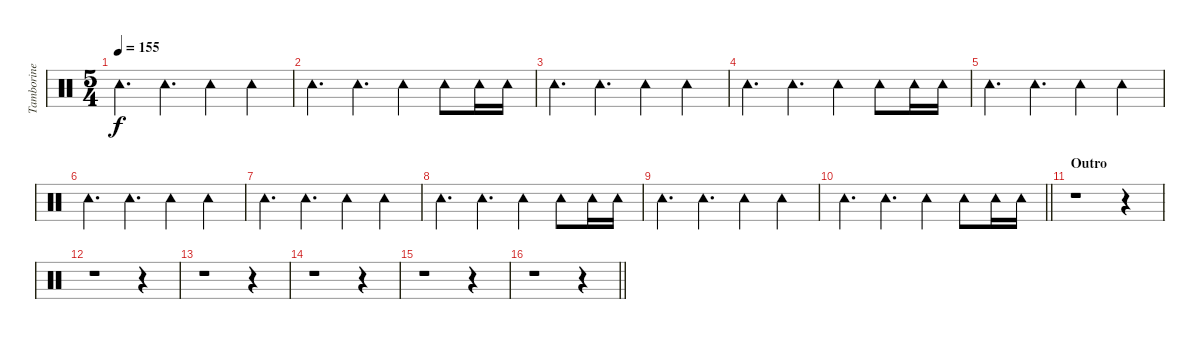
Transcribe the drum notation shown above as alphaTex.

\track ("Tamborine" "Tamborine") {instrument percussion}
\staff {score}
\articulation defaults
\ts (5 4)
\tempo 155
\clef neutral
\ks c "Tambourine (hit)".4{d dy f} "Tambourine (hit)".4{d} "Tambourine (hit)".4 "Tambourine (hit)".4
|
"Tambourine (hit)".4{d} "Tambourine (hit)".4{d} "Tambourine (hit)".4 "Tambourine (hit)".8 "Tambourine (hit)".16 "Tambourine (hit)".16 |
"Tambourine (hit)".4{d} "Tambourine (hit)".4{d} "Tambourine (hit)".4 "Tambourine (hit)".4 |
"Tambourine (hit)".4{d} "Tambourine (hit)".4{d} "Tambourine (hit)".4 "Tambourine (hit)".8 "Tambourine (hit)".16 "Tambourine (hit)".16 |
"Tambourine (hit)".4{d} "Tambourine (hit)".4{d} "Tambourine (hit)".4 "Tambourine (hit)".4 |
"Tambourine (hit)".4{d} "Tambourine (hit)".4{d} "Tambourine (hit)".4 "Tambourine (hit)".4 |
"Tambourine (hit)".4{d} "Tambourine (hit)".4{d} "Tambourine (hit)".4 "Tambourine (hit)".4 |
"Tambourine (hit)".4{d} "Tambourine (hit)".4{d} "Tambourine (hit)".4 "Tambourine (hit)".8 "Tambourine (hit)".16 "Tambourine (hit)".16 |
"Tambourine (hit)".4{d} "Tambourine (hit)".4{d} "Tambourine (hit)".4 "Tambourine (hit)".4 |
\barLineRight lightlight "Tambourine (hit)".4{d} "Tambourine (hit)".4{d} "Tambourine (hit)".4 "Tambourine (hit)".8 "Tambourine (hit)".16 "Tambourine (hit)".16
|
\section ("" "Outro")
r.1 r.4 |
r.1 r.4 |
r.1 r.4 |
r.1 r.4 |
r.1 r.4 |
\barLineRight lightlight
r.1 r.4
